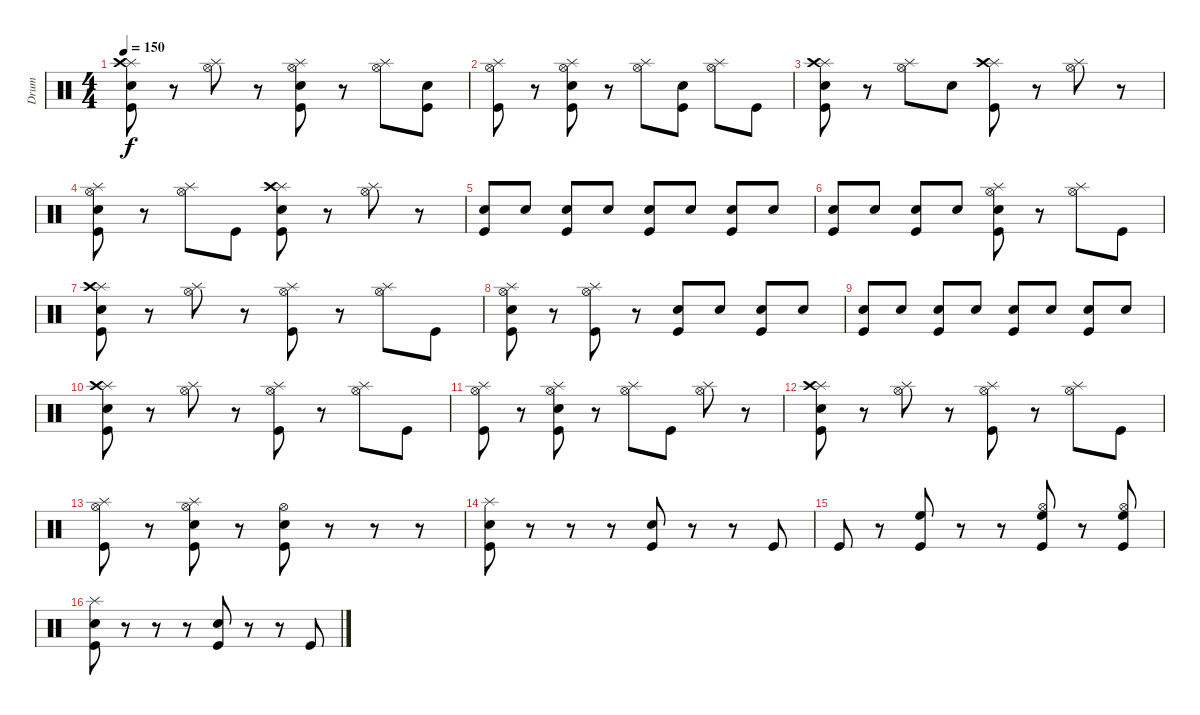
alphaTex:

\track ("Drum" "Drum") {instrument percussion}
\staff {score}
\articulation defaults
\ts (4 4)
\tempo 150
\clef neutral
\ks c
("Splash (hit)" "Crash high (hit)" "Snare (hit) 2" "Kick (hit)").8{dy f} r.8 ("Splash (hit)" "Hi-Hat (open)").8 r.8 ("Splash (hit)" "Hi-Hat (open)" "Snare (hit) 2" "Kick (hit)").8 r.8 ("Splash (hit)" "Hi-Hat (open)").8 ("Snare (hit) 2" "Kick (hit)").8 |
("Splash (hit)" "Hi-Hat (open)" "Kick (hit)").8 r.8 ("Splash (hit)" "Hi-Hat (open)" "Snare (hit) 2" "Kick (hit)").8 r.8 ("Splash (hit)" "Hi-Hat (open)").8 ("Snare (hit) 2" "Kick (hit)").8 ("Splash (hit)" "Hi-Hat (open)").8 "Kick (hit)".8 |
("Splash (hit)" "Crash high (hit)" "Snare (hit) 2" "Kick (hit)").8 r.8 ("Splash (hit)" "Hi-Hat (open)").8 "Snare (hit) 2".8 ("Splash (hit)" "Crash high (hit)" "Kick (hit)").8 r.8 ("Splash (hit)" "Hi-Hat (open)").8 r.8 |
("Splash (hit)" "Hi-Hat (open)" "Snare (hit) 2" "Kick (hit)").8 r.8 ("Splash (hit)" "Hi-Hat (open)").8 "Kick (hit)".8 ("Splash (hit)" "Crash high (hit)" "Snare (hit) 2" "Kick (hit)").8 r.8 ("Splash (hit)" "Hi-Hat (open)").8 r.8 |
("Snare (hit) 2" "Kick (hit)").8 "Snare (hit) 2".8 ("Snare (hit) 2" "Kick (hit)").8 "Snare (hit) 2".8 ("Snare (hit) 2" "Kick (hit)").8 "Snare (hit) 2".8 ("Snare (hit) 2" "Kick (hit)").8 "Snare (hit) 2".8 |
("Snare (hit) 2" "Kick (hit)").8 "Snare (hit) 2".8 ("Snare (hit) 2" "Kick (hit)").8 "Snare (hit) 2".8 ("Splash (hit)" "Hi-Hat (open)" "Snare (hit) 2" "Kick (hit)").8 r.8 ("Splash (hit)" "Hi-Hat (open)").8 "Kick (hit)".8 |
("Splash (hit)" "Crash high (hit)" "Snare (hit) 2" "Kick (hit)").8 r.8 ("Splash (hit)" "Hi-Hat (open)").8 r.8 ("Splash (hit)" "Hi-Hat (open)" "Kick (hit)").8 r.8 ("Splash (hit)" "Hi-Hat (open)").8 "Kick (hit)".8 |
("Splash (hit)" "Hi-Hat (open)" "Snare (hit) 2" "Kick (hit)").8 r.8 ("Splash (hit)" "Hi-Hat (open)" "Kick (hit)").8 r.8 ("Snare (hit) 2" "Kick (hit)").8 "Snare (hit) 2".8 ("Snare (hit) 2" "Kick (hit)").8 "Snare (hit) 2".8 |
("Snare (hit) 2" "Kick (hit)").8 "Snare (hit) 2".8 ("Snare (hit) 2" "Kick (hit)").8 "Snare (hit) 2".8 ("Snare (hit) 2" "Kick (hit)").8 "Snare (hit) 2".8 ("Snare (hit) 2" "Kick (hit)").8 "Snare (hit) 2".8 |
("Splash (hit)" "Crash high (hit)" "Snare (hit) 2" "Kick (hit)").8 r.8 ("Splash (hit)" "Hi-Hat (open)").8 r.8 ("Splash (hit)" "Hi-Hat (open)" "Kick (hit)").8 r.8 ("Splash (hit)" "Hi-Hat (open)").8 "Kick (hit)".8 |
("Splash (hit)" "Hi-Hat (open)" "Kick (hit)").8 r.8 ("Splash (hit)" "Hi-Hat (open)" "Snare (hit) 2" "Kick (hit)").8 r.8 ("Splash (hit)" "Hi-Hat (open)").8 "Kick (hit)".8 ("Splash (hit)" "Hi-Hat (open)").8 r.8 |
("Splash (hit)" "Crash high (hit)" "Snare (hit) 2" "Kick (hit)").8 r.8 ("Splash (hit)" "Hi-Hat (open)").8 r.8 ("Splash (hit)" "Hi-Hat (open)" "Kick (hit)").8 r.8 ("Splash (hit)" "Hi-Hat (open)").8 "Kick (hit)".8 |
("Splash (hit)" "Hi-Hat (open)" "Kick (hit)").8 r.8 ("Splash (hit)" "Hi-Hat (open)" "Snare (hit) 2" "Kick (hit)").8 r.8 ("Hi-Hat (open)" "Snare (hit) 2" "Kick (hit)").8 r.8 r.8 r.8 |
("Splash (hit)" "Snare (hit) 2" "Kick (hit)").8 r.8 r.8 r.8 ("Snare (hit) 2" "Kick (hit)").8 r.8 r.8 "Kick (hit)".8 |
"Kick (hit)".8 r.8 ("High Floor Tom (hit)" "Kick (hit)").8 r.8 r.8 ("Hi-Hat (open)" "High Floor Tom (hit)" "Kick (hit)").8 r.8 ("Hi-Hat (open)" "High Floor Tom (hit)" "Kick (hit)").8 |
("Splash (hit)" "Snare (hit) 2" "Kick (hit)").8 r.8 r.8 r.8 ("Snare (hit) 2" "Kick (hit)").8 r.8 r.8 "Kick (hit)".8
